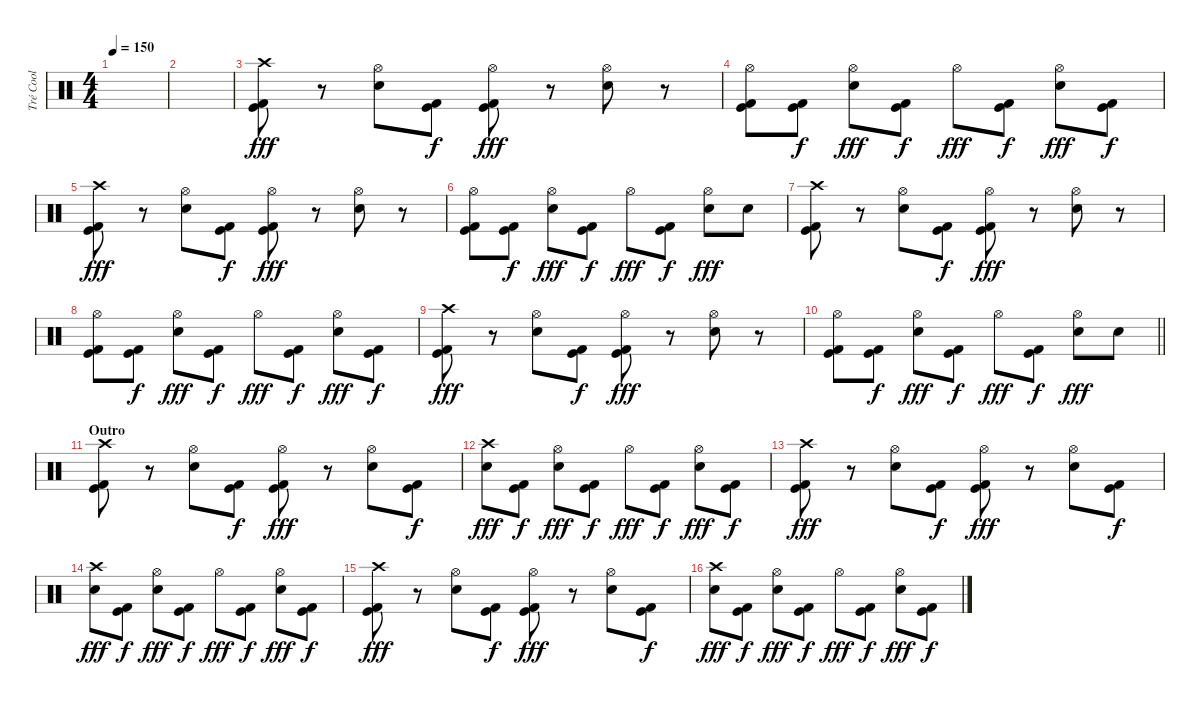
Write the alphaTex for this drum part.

\track ("Tré Cool" "Tré Cool") {instrument percussion}
\staff {score}
\articulation defaults
\ts (4 4)
\tempo 150
\clef neutral
\ks c
|
|
("Crash high (hit)" "Kick (hit)" "Kick (hit) 2").8{dy fff} r.8 ("Hi-Hat (open)" "Snare (hit) 2").8 ("Kick (hit)" "Kick (hit) 2").8{dy f} ("Hi-Hat (open)" "Kick (hit)" "Kick (hit) 2").8{dy fff} r.8 ("Hi-Hat (open)" "Snare (hit) 2").8 r.8 |
("Hi-Hat (open)" "Kick (hit)" "Kick (hit) 2").8 ("Kick (hit)" "Kick (hit) 2").8{dy f} ("Hi-Hat (open)" "Snare (hit) 2").8{dy fff} ("Kick (hit)" "Kick (hit) 2").8{dy f} "Hi-Hat (open)".8{dy fff} ("Kick (hit)" "Kick (hit) 2").8{dy f} ("Hi-Hat (open)" "Snare (hit) 2").8{dy fff} ("Kick (hit)" "Kick (hit) 2").8{dy f} |
("Crash high (hit)" "Kick (hit)" "Kick (hit) 2").8{dy fff} r.8 ("Hi-Hat (open)" "Snare (hit) 2").8 ("Kick (hit)" "Kick (hit) 2").8{dy f} ("Hi-Hat (open)" "Kick (hit)" "Kick (hit) 2").8{dy fff} r.8 ("Hi-Hat (open)" "Snare (hit) 2").8 r.8 |
("Hi-Hat (open)" "Kick (hit)" "Kick (hit) 2").8 ("Kick (hit)" "Kick (hit) 2").8{dy f} ("Hi-Hat (open)" "Snare (hit) 2").8{dy fff} ("Kick (hit)" "Kick (hit) 2").8{dy f} "Hi-Hat (open)".8{dy fff} ("Kick (hit)" "Kick (hit) 2").8{dy f} ("Hi-Hat (open)" "Snare (hit) 2").8{dy fff} "Snare (hit) 2".8 |
("Crash high (hit)" "Kick (hit)" "Kick (hit) 2").8 r.8 ("Hi-Hat (open)" "Snare (hit) 2").8 ("Kick (hit)" "Kick (hit) 2").8{dy f} ("Hi-Hat (open)" "Kick (hit)" "Kick (hit) 2").8{dy fff} r.8 ("Hi-Hat (open)" "Snare (hit) 2").8 r.8 |
("Hi-Hat (open)" "Kick (hit)" "Kick (hit) 2").8 ("Kick (hit)" "Kick (hit) 2").8{dy f} ("Hi-Hat (open)" "Snare (hit) 2").8{dy fff} ("Kick (hit)" "Kick (hit) 2").8{dy f} "Hi-Hat (open)".8{dy fff} ("Kick (hit)" "Kick (hit) 2").8{dy f} ("Hi-Hat (open)" "Snare (hit) 2").8{dy fff} ("Kick (hit)" "Kick (hit) 2").8{dy f} |
("Crash high (hit)" "Kick (hit)" "Kick (hit) 2").8{dy fff} r.8 ("Hi-Hat (open)" "Snare (hit) 2").8 ("Kick (hit)" "Kick (hit) 2").8{dy f} ("Hi-Hat (open)" "Kick (hit)" "Kick (hit) 2").8{dy fff} r.8 ("Hi-Hat (open)" "Snare (hit) 2").8 r.8 |
\barLineRight lightlight
("Hi-Hat (open)" "Kick (hit)" "Kick (hit) 2").8 ("Kick (hit)" "Kick (hit) 2").8{dy f} ("Hi-Hat (open)" "Snare (hit) 2").8{dy fff} ("Kick (hit)" "Kick (hit) 2").8{dy f} "Hi-Hat (open)".8{dy fff} ("Kick (hit)" "Kick (hit) 2").8{dy f} ("Hi-Hat (open)" "Snare (hit) 2").8{dy fff} "Snare (hit) 2".8 |
\section ("" "Outro")
("Crash high (hit)" "Kick (hit)" "Kick (hit) 2").8 r.8 ("Hi-Hat (open)" "Snare (hit) 2").8 ("Kick (hit)" "Kick (hit) 2").8{dy f} ("Hi-Hat (open)" "Kick (hit)" "Kick (hit) 2").8{dy fff} r.8 ("Hi-Hat (open)" "Snare (hit) 2").8 ("Kick (hit)" "Kick (hit) 2").8{dy f} |
("Crash high (hit)" "Snare (hit) 2").8{dy fff} ("Kick (hit)" "Kick (hit) 2").8{dy f} ("Hi-Hat (open)" "Snare (hit) 2").8{dy fff} ("Kick (hit)" "Kick (hit) 2").8{dy f} "Hi-Hat (open)".8{dy fff} ("Kick (hit)" "Kick (hit) 2").8{dy f} ("Hi-Hat (open)" "Snare (hit) 2").8{dy fff} ("Kick (hit)" "Kick (hit) 2").8{dy f} |
("Crash high (hit)" "Kick (hit)" "Kick (hit) 2").8{dy fff} r.8 ("Hi-Hat (open)" "Snare (hit) 2").8 ("Kick (hit)" "Kick (hit) 2").8{dy f} ("Hi-Hat (open)" "Kick (hit)" "Kick (hit) 2").8{dy fff} r.8 ("Hi-Hat (open)" "Snare (hit) 2").8 ("Kick (hit)" "Kick (hit) 2").8{dy f} |
("Crash high (hit)" "Snare (hit) 2").8{dy fff} ("Kick (hit)" "Kick (hit) 2").8{dy f} ("Hi-Hat (open)" "Snare (hit) 2").8{dy fff} ("Kick (hit)" "Kick (hit) 2").8{dy f} "Hi-Hat (open)".8{dy fff} ("Kick (hit)" "Kick (hit) 2").8{dy f} ("Hi-Hat (open)" "Snare (hit) 2").8{dy fff} ("Kick (hit)" "Kick (hit) 2").8{dy f} |
("Crash high (hit)" "Kick (hit)" "Kick (hit) 2").8{dy fff} r.8 ("Hi-Hat (open)" "Snare (hit) 2").8 ("Kick (hit)" "Kick (hit) 2").8{dy f} ("Hi-Hat (open)" "Kick (hit)" "Kick (hit) 2").8{dy fff} r.8 ("Hi-Hat (open)" "Snare (hit) 2").8 ("Kick (hit)" "Kick (hit) 2").8{dy f} |
("Crash high (hit)" "Snare (hit) 2").8{dy fff} ("Kick (hit)" "Kick (hit) 2").8{dy f} ("Hi-Hat (open)" "Snare (hit) 2").8{dy fff} ("Kick (hit)" "Kick (hit) 2").8{dy f} "Hi-Hat (open)".8{dy fff} ("Kick (hit)" "Kick (hit) 2").8{dy f} ("Hi-Hat (open)" "Snare (hit) 2").8{dy fff} ("Kick (hit)" "Kick (hit) 2").8{dy f}
